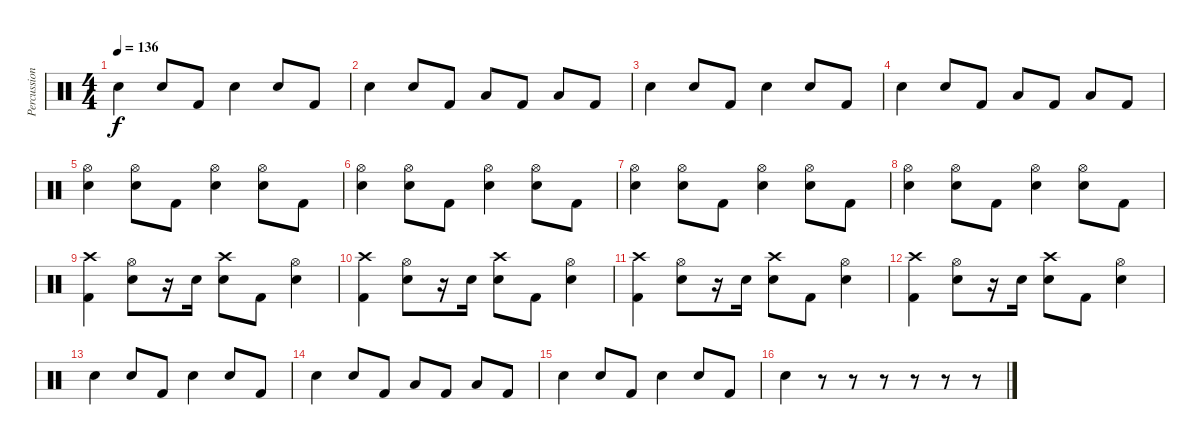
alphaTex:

\track ("Percussions" "Percussion") {instrument percussion}
\staff {score}
\articulation defaults
\ts (4 4)
\tempo 136
\clef neutral
\ks c "Snare (hit) 2".4{dy f} "Snare (hit) 2".8 "Kick (hit) 2".8 "Snare (hit) 2".4 "Snare (hit) 2".8 "Kick (hit) 2".8
|
"Snare (hit) 2".4 "Snare (hit) 2".8 "Kick (hit) 2".8 "Low Tom (hit)".8 "Kick (hit) 2".8 "Low Floor Tom (hit)".8 "Kick (hit) 2".8 |
"Snare (hit) 2".4 "Snare (hit) 2".8 "Kick (hit) 2".8 "Snare (hit) 2".4 "Snare (hit) 2".8 "Kick (hit) 2".8 |
"Snare (hit) 2".4 "Snare (hit) 2".8 "Kick (hit) 2".8 "Low Tom (hit)".8 "Kick (hit) 2".8 "Low Floor Tom (hit)".8 "Kick (hit) 2".8 |
("Hi-Hat (open)" "Snare (hit) 2").4 ("Hi-Hat (open)" "Snare (hit) 2").8 "Kick (hit) 2".8 ("Hi-Hat (open)" "Snare (hit) 2").4 ("Hi-Hat (open)" "Snare (hit) 2").8 "Kick (hit) 2".8 |
("Hi-Hat (open)" "Snare (hit) 2").4 ("Hi-Hat (open)" "Snare (hit) 2").8 "Kick (hit) 2".8 ("Hi-Hat (open)" "Snare (hit) 2").4 ("Hi-Hat (open)" "Snare (hit) 2").8 "Kick (hit) 2".8 |
("Hi-Hat (open)" "Snare (hit) 2").4 ("Hi-Hat (open)" "Snare (hit) 2").8 "Kick (hit) 2".8 ("Hi-Hat (open)" "Snare (hit) 2").4 ("Hi-Hat (open)" "Snare (hit) 2").8 "Kick (hit) 2".8 |
("Hi-Hat (open)" "Snare (hit) 2").4 ("Hi-Hat (open)" "Snare (hit) 2").8 "Kick (hit) 2".8 ("Hi-Hat (open)" "Snare (hit) 2").4 ("Hi-Hat (open)" "Snare (hit) 2").8 "Kick (hit) 2".8 |
("Crash high (hit)" "Kick (hit) 2").4 ("Hi-Hat (open)" "Snare (hit) 2").8 r.16 "Snare (hit) 2".16 ("Crash high (hit)" "Snare (hit) 2").8 "Kick (hit) 2".8 ("Hi-Hat (open)" "Snare (hit) 2").4 |
("Crash high (hit)" "Kick (hit) 2").4 ("Hi-Hat (open)" "Snare (hit) 2").8 r.16 "Snare (hit) 2".16 ("Crash high (hit)" "Snare (hit) 2").8 "Kick (hit) 2".8 ("Hi-Hat (open)" "Snare (hit) 2").4 |
("Crash high (hit)" "Kick (hit) 2").4 ("Hi-Hat (open)" "Snare (hit) 2").8 r.16 "Snare (hit) 2".16 ("Crash high (hit)" "Snare (hit) 2").8 "Kick (hit) 2".8 ("Hi-Hat (open)" "Snare (hit) 2").4 |
("Crash high (hit)" "Kick (hit) 2").4 ("Hi-Hat (open)" "Snare (hit) 2").8 r.16 "Snare (hit) 2".16 ("Crash high (hit)" "Snare (hit) 2").8 "Kick (hit) 2".8 ("Hi-Hat (open)" "Snare (hit) 2").4 |
"Snare (hit) 2".4 "Snare (hit) 2".8 "Kick (hit) 2".8 "Snare (hit) 2".4 "Snare (hit) 2".8 "Kick (hit) 2".8 |
"Snare (hit) 2".4 "Snare (hit) 2".8 "Kick (hit) 2".8 "Low Tom (hit)".8 "Kick (hit) 2".8 "Low Floor Tom (hit)".8 "Kick (hit) 2".8 |
"Snare (hit) 2".4 "Snare (hit) 2".8 "Kick (hit) 2".8 "Snare (hit) 2".4 "Snare (hit) 2".8 "Kick (hit) 2".8 |
"Snare (hit) 2".4 r.8 r.8 r.8 r.8 r.8 r.8
